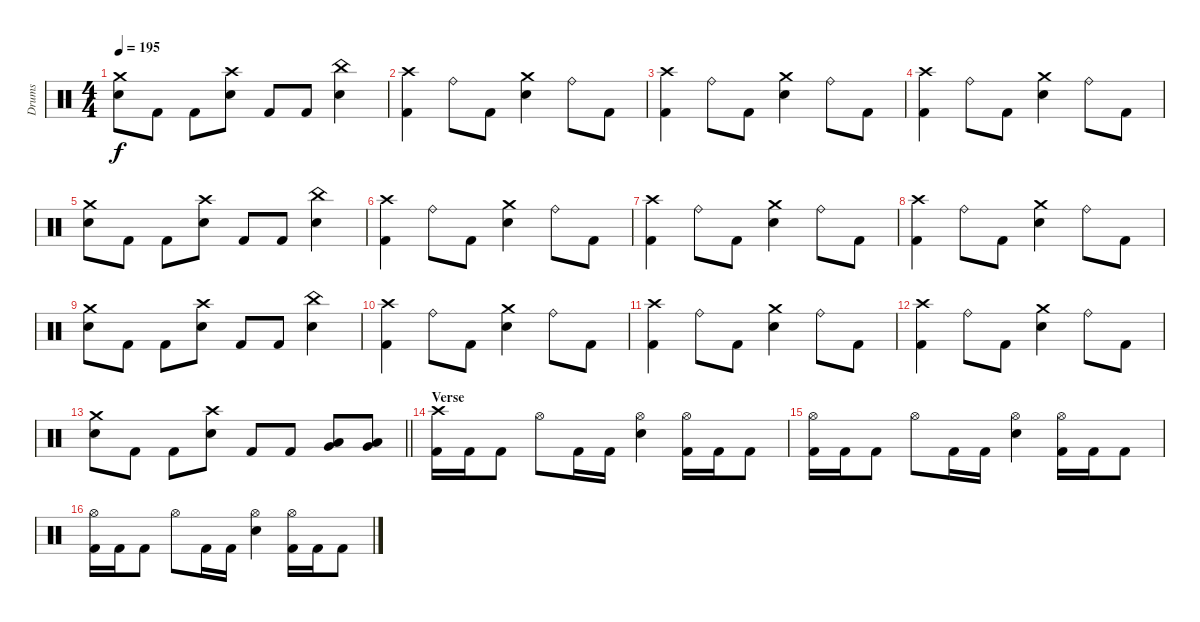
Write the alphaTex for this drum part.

\track ("Drums" "Drums") {instrument percussion}
\staff {score}
\articulation defaults
\ts (4 4)
\tempo 195
\clef neutral
\ks c
("Crash medium (hit)" "Electric Snare (hit)").8{dy f} "Kick (hit) 2".8 "Kick (hit) 2".8 ("Crash high (hit)" "Electric Snare (hit)").8 "Kick (hit) 2".8 "Kick (hit) 2".8 ("China (hit)" "Electric Snare (hit)").4 |
("Crash high (hit)" "Kick (hit) 2").4 "Ride (bell)".8 "Kick (hit) 2".8 ("Crash medium (hit)" "Electric Snare (hit)").4 "Ride (bell)".8 "Kick (hit) 2".8 |
("Crash high (hit)" "Kick (hit) 2").4 "Ride (bell)".8 "Kick (hit) 2".8 ("Crash medium (hit)" "Electric Snare (hit)").4 "Ride (bell)".8 "Kick (hit) 2".8 |
("Crash high (hit)" "Kick (hit) 2").4 "Ride (bell)".8 "Kick (hit) 2".8 ("Crash medium (hit)" "Electric Snare (hit)").4 "Ride (bell)".8 "Kick (hit) 2".8 |
("Crash medium (hit)" "Electric Snare (hit)").8 "Kick (hit) 2".8 "Kick (hit) 2".8 ("Crash high (hit)" "Electric Snare (hit)").8 "Kick (hit) 2".8 "Kick (hit) 2".8 ("China (hit)" "Electric Snare (hit)").4 |
("Crash high (hit)" "Kick (hit) 2").4 "Ride (bell)".8 "Kick (hit) 2".8 ("Crash medium (hit)" "Electric Snare (hit)").4 "Ride (bell)".8 "Kick (hit) 2".8 |
("Crash high (hit)" "Kick (hit) 2").4 "Ride (bell)".8 "Kick (hit) 2".8 ("Crash medium (hit)" "Electric Snare (hit)").4 "Ride (bell)".8 "Kick (hit) 2".8 |
("Crash high (hit)" "Kick (hit) 2").4 "Ride (bell)".8 "Kick (hit) 2".8 ("Crash medium (hit)" "Electric Snare (hit)").4 "Ride (bell)".8 "Kick (hit) 2".8 |
("Crash medium (hit)" "Electric Snare (hit)").8 "Kick (hit) 2".8 "Kick (hit) 2".8 ("Crash high (hit)" "Electric Snare (hit)").8 "Kick (hit) 2".8 "Kick (hit) 2".8 ("China (hit)" "Electric Snare (hit)").4 |
("Crash high (hit)" "Kick (hit) 2").4 "Ride (bell)".8 "Kick (hit) 2".8 ("Crash medium (hit)" "Electric Snare (hit)").4 "Ride (bell)".8 "Kick (hit) 2".8 |
("Crash high (hit)" "Kick (hit) 2").4 "Ride (bell)".8 "Kick (hit) 2".8 ("Crash medium (hit)" "Electric Snare (hit)").4 "Ride (bell)".8 "Kick (hit) 2".8 |
("Crash high (hit)" "Kick (hit) 2").4 "Ride (bell)".8 "Kick (hit) 2".8 ("Crash medium (hit)" "Electric Snare (hit)").4 "Ride (bell)".8 "Kick (hit) 2".8 |
\barLineRight lightlight
("Crash medium (hit)" "Electric Snare (hit)").8 "Kick (hit) 2".8 "Kick (hit) 2".8 ("Crash high (hit)" "Electric Snare (hit)").8 "Kick (hit) 2".8 "Kick (hit) 2".8 ("Low Tom (hit)" "Very Low Tom (hit)").8 ("Low Tom (hit)" "Very Low Tom (hit)").8 |
\section ("" "Verse")
("Crash high (hit)" "Kick (hit) 2").16 "Kick (hit) 2".16 "Kick (hit) 2".8 "Hi-Hat (open)".8 "Kick (hit) 2".16 "Kick (hit) 2".16 ("Hi-Hat (open)" "Electric Snare (hit)").4 ("Hi-Hat (open)" "Kick (hit) 2").16 "Kick (hit) 2".16 "Kick (hit) 2".8 |
("Hi-Hat (open)" "Kick (hit) 2").16 "Kick (hit) 2".16 "Kick (hit) 2".8 "Hi-Hat (open)".8 "Kick (hit) 2".16 "Kick (hit) 2".16 ("Hi-Hat (open)" "Electric Snare (hit)").4 ("Hi-Hat (open)" "Kick (hit) 2").16 "Kick (hit) 2".16 "Kick (hit) 2".8 |
("Hi-Hat (open)" "Kick (hit) 2").16 "Kick (hit) 2".16 "Kick (hit) 2".8 "Hi-Hat (open)".8 "Kick (hit) 2".16 "Kick (hit) 2".16 ("Hi-Hat (open)" "Electric Snare (hit)").4 ("Hi-Hat (open)" "Kick (hit) 2").16 "Kick (hit) 2".16 "Kick (hit) 2".8
